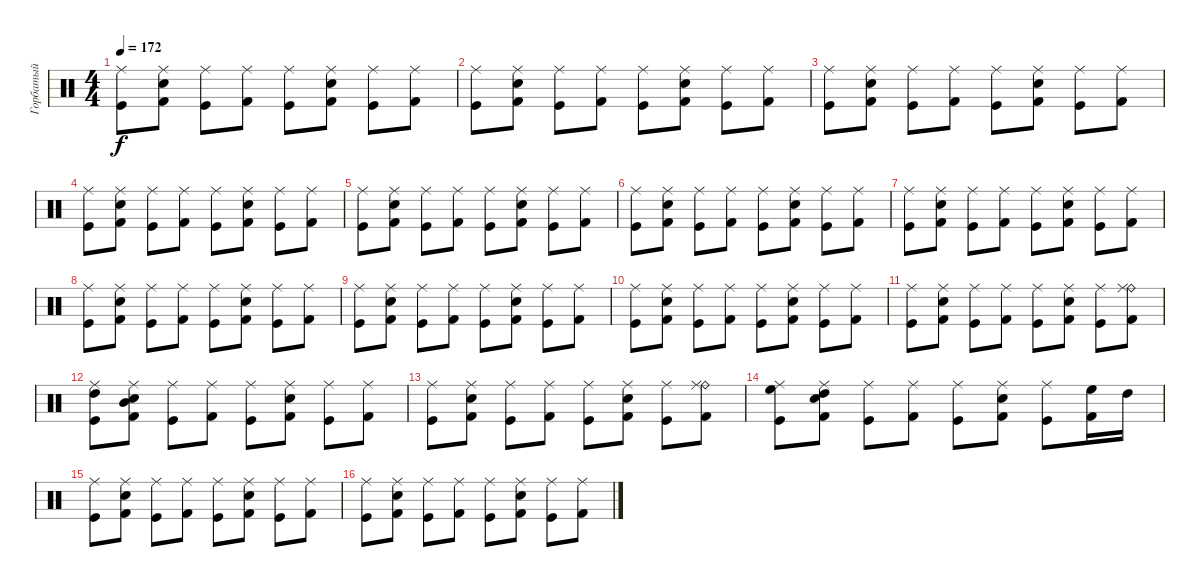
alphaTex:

\track ("Горбатый" "Горбатый") {instrument percussion}
\staff {score}
\articulation defaults
\ts (4 4)
\tempo 172
\clef neutral
\ks c
("Ride (middle)" "Kick (hit)").8{dy f} ("Electric Snare (hit)" "Ride (middle)" "Kick (hit) 2").8 ("Ride (middle)" "Kick (hit)").8 ("Ride (middle)" "Kick (hit) 2").8 ("Ride (middle)" "Kick (hit)").8 ("Electric Snare (hit)" "Ride (middle)" "Kick (hit) 2").8 ("Ride (middle)" "Kick (hit)").8 ("Ride (middle)" "Kick (hit) 2").8 |
("Ride (middle)" "Kick (hit)").8 ("Electric Snare (hit)" "Ride (middle)" "Kick (hit) 2").8 ("Ride (middle)" "Kick (hit)").8 ("Ride (middle)" "Kick (hit) 2").8 ("Ride (middle)" "Kick (hit)").8 ("Electric Snare (hit)" "Ride (middle)" "Kick (hit) 2").8 ("Ride (middle)" "Kick (hit)").8 ("Ride (middle)" "Kick (hit) 2").8 |
("Ride (middle)" "Kick (hit)").8 ("Electric Snare (hit)" "Ride (middle)" "Kick (hit) 2").8 ("Ride (middle)" "Kick (hit)").8 ("Ride (middle)" "Kick (hit) 2").8 ("Ride (middle)" "Kick (hit)").8 ("Electric Snare (hit)" "Ride (middle)" "Kick (hit) 2").8 ("Ride (middle)" "Kick (hit)").8 ("Ride (middle)" "Kick (hit) 2").8 |
("Ride (middle)" "Kick (hit)").8 ("Electric Snare (hit)" "Ride (middle)" "Kick (hit) 2").8 ("Ride (middle)" "Kick (hit)").8 ("Ride (middle)" "Kick (hit) 2").8 ("Ride (middle)" "Kick (hit)").8 ("Electric Snare (hit)" "Ride (middle)" "Kick (hit) 2").8 ("Ride (middle)" "Kick (hit)").8 ("Ride (middle)" "Kick (hit) 2").8 |
("Ride (middle)" "Kick (hit)").8 ("Electric Snare (hit)" "Ride (middle)" "Kick (hit) 2").8 ("Ride (middle)" "Kick (hit)").8 ("Ride (middle)" "Kick (hit) 2").8 ("Ride (middle)" "Kick (hit)").8 ("Electric Snare (hit)" "Ride (middle)" "Kick (hit) 2").8 ("Ride (middle)" "Kick (hit)").8 ("Ride (middle)" "Kick (hit) 2").8 |
("Ride (middle)" "Kick (hit)").8 ("Electric Snare (hit)" "Ride (middle)" "Kick (hit) 2").8 ("Ride (middle)" "Kick (hit)").8 ("Ride (middle)" "Kick (hit) 2").8 ("Ride (middle)" "Kick (hit)").8 ("Electric Snare (hit)" "Ride (middle)" "Kick (hit) 2").8 ("Ride (middle)" "Kick (hit)").8 ("Ride (middle)" "Kick (hit) 2").8 |
("Ride (middle)" "Kick (hit)").8 ("Electric Snare (hit)" "Ride (middle)" "Kick (hit) 2").8 ("Ride (middle)" "Kick (hit)").8 ("Ride (middle)" "Kick (hit) 2").8 ("Ride (middle)" "Kick (hit)").8 ("Electric Snare (hit)" "Ride (middle)" "Kick (hit) 2").8 ("Ride (middle)" "Kick (hit)").8 ("Ride (middle)" "Kick (hit) 2").8 |
("Ride (middle)" "Kick (hit)").8 ("Electric Snare (hit)" "Ride (middle)" "Kick (hit) 2").8 ("Ride (middle)" "Kick (hit)").8 ("Ride (middle)" "Kick (hit) 2").8 ("Ride (middle)" "Kick (hit)").8 ("Electric Snare (hit)" "Ride (middle)" "Kick (hit) 2").8 ("Ride (middle)" "Kick (hit)").8 ("Ride (middle)" "Kick (hit) 2").8 |
("Ride (middle)" "Kick (hit)").8 ("Electric Snare (hit)" "Ride (middle)" "Kick (hit) 2").8 ("Ride (middle)" "Kick (hit)").8 ("Ride (middle)" "Kick (hit) 2").8 ("Ride (middle)" "Kick (hit)").8 ("Electric Snare (hit)" "Ride (middle)" "Kick (hit) 2").8 ("Ride (middle)" "Kick (hit)").8 ("Ride (middle)" "Kick (hit) 2").8 |
("Ride (middle)" "Kick (hit)").8 ("Electric Snare (hit)" "Ride (middle)" "Kick (hit) 2").8 ("Ride (middle)" "Kick (hit)").8 ("Ride (middle)" "Kick (hit) 2").8 ("Ride (middle)" "Kick (hit)").8 ("Electric Snare (hit)" "Ride (middle)" "Kick (hit) 2").8 ("Ride (middle)" "Kick (hit)").8 ("Ride (middle)" "Kick (hit) 2").8 |
("Ride (middle)" "Kick (hit)").8 ("Electric Snare (hit)" "Ride (middle)" "Kick (hit) 2").8 ("Ride (middle)" "Kick (hit)").8 ("Ride (middle)" "Kick (hit) 2").8 ("Ride (middle)" "Kick (hit)").8 ("Electric Snare (hit)" "Ride (middle)" "Kick (hit) 2").8 ("Ride (middle)" "Kick (hit)").8 ("Ride (bell)" "Ride (middle)" "Kick (hit) 2").8 |
("High Tom (hit)" "Ride (middle)" "Kick (hit)").8 ("Mid Tom (hit)" "Electric Snare (hit)" "Ride (middle)" "Kick (hit) 2").8 ("Ride (middle)" "Kick (hit)").8 ("Ride (middle)" "Kick (hit) 2").8 ("Ride (middle)" "Kick (hit)").8 ("Electric Snare (hit)" "Ride (middle)" "Kick (hit) 2").8 ("Ride (middle)" "Kick (hit)").8 ("Ride (middle)" "Kick (hit) 2").8 |
("Ride (middle)" "Kick (hit)").8 ("Electric Snare (hit)" "Ride (middle)" "Kick (hit) 2").8 ("Ride (middle)" "Kick (hit)").8 ("Ride (middle)" "Kick (hit) 2").8 ("Ride (middle)" "Kick (hit)").8 ("Electric Snare (hit)" "Ride (middle)" "Kick (hit) 2").8 ("Ride (middle)" "Kick (hit)").8 ("Ride (bell)" "Ride (middle)" "Kick (hit) 2").8 |
("High Floor Tom (hit)" "Ride (middle)" "Kick (hit)").8 ("High Tom (hit)" "Electric Snare (hit)" "Ride (middle)" "Kick (hit) 2").8 ("Ride (middle)" "Kick (hit)").8 ("Ride (middle)" "Kick (hit) 2").8 ("Ride (middle)" "Kick (hit)").8 ("Electric Snare (hit)" "Ride (middle)" "Kick (hit) 2").8 ("Ride (middle)" "Kick (hit)").8 ("High Floor Tom (hit)" "Kick (hit) 2").16 "High Tom (hit)".16 |
("Ride (middle)" "Kick (hit)").8 ("Electric Snare (hit)" "Ride (middle)" "Kick (hit) 2").8 ("Ride (middle)" "Kick (hit)").8 ("Ride (middle)" "Kick (hit) 2").8 ("Ride (middle)" "Kick (hit)").8 ("Electric Snare (hit)" "Ride (middle)" "Kick (hit) 2").8 ("Ride (middle)" "Kick (hit)").8 ("Ride (middle)" "Kick (hit) 2").8 |
("Ride (middle)" "Kick (hit)").8 ("Electric Snare (hit)" "Ride (middle)" "Kick (hit) 2").8 ("Ride (middle)" "Kick (hit)").8 ("Ride (middle)" "Kick (hit) 2").8 ("Ride (middle)" "Kick (hit)").8 ("Electric Snare (hit)" "Ride (middle)" "Kick (hit) 2").8 ("Ride (middle)" "Kick (hit)").8 ("Ride (middle)" "Kick (hit) 2").8
